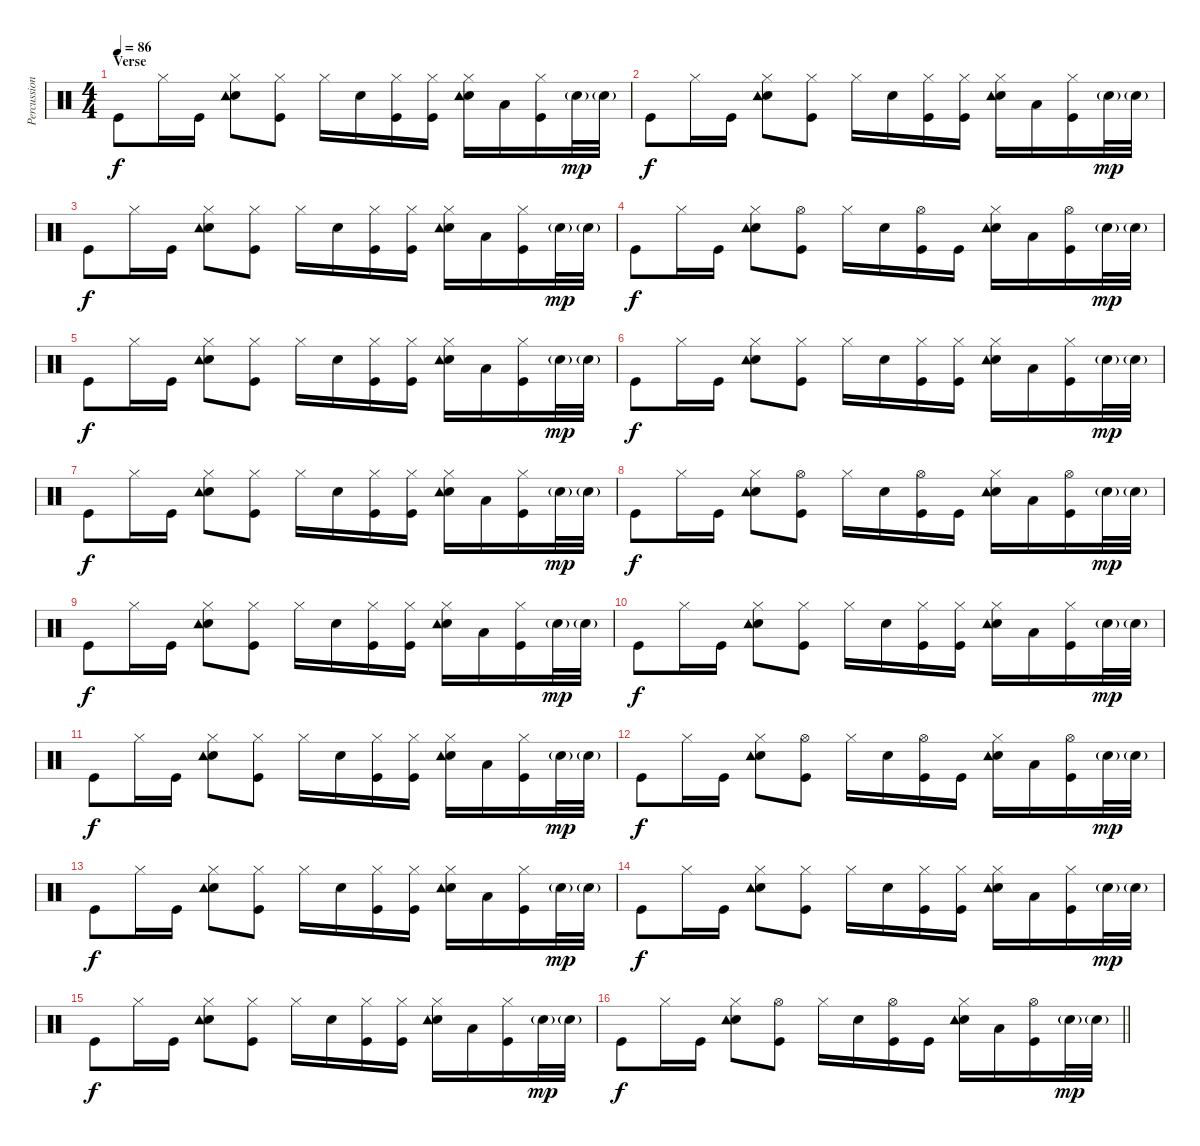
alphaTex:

\track ("Percussion" "Percussion") {instrument percussion}
\staff {score}
\articulation defaults
\ts (4 4)
\section ("" "Verse")
\tempo 86
\clef neutral
\ks c "Kick (hit)".8{dy f} "Hi-Hat (closed)".16 "Kick (hit)".16
("Snare (hit) 2" "Hi-Hat (closed)" "Tambourine (hit)").8 ("Hi-Hat (closed)" "Kick (hit)").8 "Hi-Hat (closed)".16 "Snare (hit) 2".16 ("Kick (hit)" "Hi-Hat (closed)").16 ("Kick (hit)" "Hi-Hat (closed)").16 ("Snare (hit) 2" "Hi-Hat (closed)" "Tambourine (hit)").16 "Low Tom (hit)".16 ("Hi-Hat (closed)" "Kick (hit)").16 "Snare (hit) 2"{g}.32{dy mp} "Snare (hit) 2"{g}.32 |
"Kick (hit)".8{dy f} "Hi-Hat (closed)".16 "Kick (hit)".16 ("Snare (hit) 2" "Hi-Hat (closed)" "Tambourine (hit)").8 ("Hi-Hat (closed)" "Kick (hit)").8 "Hi-Hat (closed)".16 "Snare (hit) 2".16 ("Kick (hit)" "Hi-Hat (closed)").16 ("Kick (hit)" "Hi-Hat (closed)").16 ("Snare (hit) 2" "Hi-Hat (closed)" "Tambourine (hit)").16 "Low Tom (hit)".16 ("Hi-Hat (closed)" "Kick (hit)").16 "Snare (hit) 2"{g}.32{dy mp} "Snare (hit) 2"{g}.32 |
"Kick (hit)".8{dy f} "Hi-Hat (closed)".16 "Kick (hit)".16 ("Snare (hit) 2" "Hi-Hat (closed)" "Tambourine (hit)").8 ("Hi-Hat (closed)" "Kick (hit)").8 "Hi-Hat (closed)".16 "Snare (hit) 2".16 ("Kick (hit)" "Hi-Hat (closed)").16 ("Kick (hit)" "Hi-Hat (closed)").16 ("Snare (hit) 2" "Hi-Hat (closed)" "Tambourine (hit)").16 "Low Tom (hit)".16 ("Hi-Hat (closed)" "Kick (hit)").16 "Snare (hit) 2"{g}.32{dy mp} "Snare (hit) 2"{g}.32 |
"Kick (hit)".8{dy f} "Hi-Hat (closed)".16 "Kick (hit)".16 ("Snare (hit) 2" "Hi-Hat (closed)" "Tambourine (hit)").8 ("Hi-Hat (open)" "Kick (hit)").8 "Hi-Hat (closed)".16 "Snare (hit) 2".16 ("Kick (hit)" "Hi-Hat (open)").16 "Kick (hit)".16 ("Snare (hit) 2" "Tambourine (hit)" "Hi-Hat (closed)").16 "Low Tom (hit)".16 ("Hi-Hat (open)" "Kick (hit)").16 "Snare (hit) 2"{g}.32{dy mp} "Snare (hit) 2"{g}.32 |
"Kick (hit)".8{dy f} "Hi-Hat (closed)".16 "Kick (hit)".16 ("Snare (hit) 2" "Hi-Hat (closed)" "Tambourine (hit)").8 ("Hi-Hat (closed)" "Kick (hit)").8 "Hi-Hat (closed)".16 "Snare (hit) 2".16 ("Kick (hit)" "Hi-Hat (closed)").16 ("Kick (hit)" "Hi-Hat (closed)").16 ("Snare (hit) 2" "Hi-Hat (closed)" "Tambourine (hit)").16 "Low Tom (hit)".16 ("Hi-Hat (closed)" "Kick (hit)").16 "Snare (hit) 2"{g}.32{dy mp} "Snare (hit) 2"{g}.32 |
"Kick (hit)".8{dy f} "Hi-Hat (closed)".16 "Kick (hit)".16 ("Snare (hit) 2" "Hi-Hat (closed)" "Tambourine (hit)").8 ("Hi-Hat (closed)" "Kick (hit)").8 "Hi-Hat (closed)".16 "Snare (hit) 2".16 ("Kick (hit)" "Hi-Hat (closed)").16 ("Kick (hit)" "Hi-Hat (closed)").16 ("Snare (hit) 2" "Hi-Hat (closed)" "Tambourine (hit)").16 "Low Tom (hit)".16 ("Hi-Hat (closed)" "Kick (hit)").16 "Snare (hit) 2"{g}.32{dy mp} "Snare (hit) 2"{g}.32 |
"Kick (hit)".8{dy f} "Hi-Hat (closed)".16 "Kick (hit)".16 ("Snare (hit) 2" "Hi-Hat (closed)" "Tambourine (hit)").8 ("Hi-Hat (closed)" "Kick (hit)").8 "Hi-Hat (closed)".16 "Snare (hit) 2".16 ("Kick (hit)" "Hi-Hat (closed)").16 ("Kick (hit)" "Hi-Hat (closed)").16 ("Snare (hit) 2" "Hi-Hat (closed)" "Tambourine (hit)").16 "Low Tom (hit)".16 ("Hi-Hat (closed)" "Kick (hit)").16 "Snare (hit) 2"{g}.32{dy mp} "Snare (hit) 2"{g}.32 |
"Kick (hit)".8{dy f} "Hi-Hat (closed)".16 "Kick (hit)".16 ("Snare (hit) 2" "Hi-Hat (closed)" "Tambourine (hit)").8 ("Hi-Hat (open)" "Kick (hit)").8 "Hi-Hat (closed)".16 "Snare (hit) 2".16 ("Kick (hit)" "Hi-Hat (open)").16 "Kick (hit)".16 ("Snare (hit) 2" "Tambourine (hit)" "Hi-Hat (closed)").16 "Low Tom (hit)".16 ("Hi-Hat (open)" "Kick (hit)").16 "Snare (hit) 2"{g}.32{dy mp} "Snare (hit) 2"{g}.32 |
"Kick (hit)".8{dy f} "Hi-Hat (closed)".16 "Kick (hit)".16 ("Snare (hit) 2" "Hi-Hat (closed)" "Tambourine (hit)").8 ("Hi-Hat (closed)" "Kick (hit)").8 "Hi-Hat (closed)".16 "Snare (hit) 2".16 ("Kick (hit)" "Hi-Hat (closed)").16 ("Kick (hit)" "Hi-Hat (closed)").16 ("Snare (hit) 2" "Hi-Hat (closed)" "Tambourine (hit)").16 "Low Tom (hit)".16 ("Hi-Hat (closed)" "Kick (hit)").16 "Snare (hit) 2"{g}.32{dy mp} "Snare (hit) 2"{g}.32 |
"Kick (hit)".8{dy f} "Hi-Hat (closed)".16 "Kick (hit)".16 ("Snare (hit) 2" "Hi-Hat (closed)" "Tambourine (hit)").8 ("Hi-Hat (closed)" "Kick (hit)").8 "Hi-Hat (closed)".16 "Snare (hit) 2".16 ("Kick (hit)" "Hi-Hat (closed)").16 ("Kick (hit)" "Hi-Hat (closed)").16 ("Snare (hit) 2" "Hi-Hat (closed)" "Tambourine (hit)").16 "Low Tom (hit)".16 ("Hi-Hat (closed)" "Kick (hit)").16 "Snare (hit) 2"{g}.32{dy mp} "Snare (hit) 2"{g}.32 |
"Kick (hit)".8{dy f} "Hi-Hat (closed)".16 "Kick (hit)".16 ("Snare (hit) 2" "Hi-Hat (closed)" "Tambourine (hit)").8 ("Hi-Hat (closed)" "Kick (hit)").8 "Hi-Hat (closed)".16 "Snare (hit) 2".16 ("Kick (hit)" "Hi-Hat (closed)").16 ("Kick (hit)" "Hi-Hat (closed)").16 ("Snare (hit) 2" "Hi-Hat (closed)" "Tambourine (hit)").16 "Low Tom (hit)".16 ("Hi-Hat (closed)" "Kick (hit)").16 "Snare (hit) 2"{g}.32{dy mp} "Snare (hit) 2"{g}.32 |
"Kick (hit)".8{dy f} "Hi-Hat (closed)".16 "Kick (hit)".16 ("Snare (hit) 2" "Hi-Hat (closed)" "Tambourine (hit)").8 ("Hi-Hat (open)" "Kick (hit)").8 "Hi-Hat (closed)".16 "Snare (hit) 2".16 ("Kick (hit)" "Hi-Hat (open)").16 "Kick (hit)".16 ("Snare (hit) 2" "Tambourine (hit)" "Hi-Hat (closed)").16 "Low Tom (hit)".16 ("Hi-Hat (open)" "Kick (hit)").16 "Snare (hit) 2"{g}.32{dy mp} "Snare (hit) 2"{g}.32 |
"Kick (hit)".8{dy f} "Hi-Hat (closed)".16 "Kick (hit)".16 ("Snare (hit) 2" "Hi-Hat (closed)" "Tambourine (hit)").8 ("Hi-Hat (closed)" "Kick (hit)").8 "Hi-Hat (closed)".16 "Snare (hit) 2".16 ("Kick (hit)" "Hi-Hat (closed)").16 ("Kick (hit)" "Hi-Hat (closed)").16 ("Snare (hit) 2" "Hi-Hat (closed)" "Tambourine (hit)").16 "Low Tom (hit)".16 ("Hi-Hat (closed)" "Kick (hit)").16 "Snare (hit) 2"{g}.32{dy mp} "Snare (hit) 2"{g}.32 |
"Kick (hit)".8{dy f} "Hi-Hat (closed)".16 "Kick (hit)".16 ("Snare (hit) 2" "Hi-Hat (closed)" "Tambourine (hit)").8 ("Hi-Hat (closed)" "Kick (hit)").8 "Hi-Hat (closed)".16 "Snare (hit) 2".16 ("Kick (hit)" "Hi-Hat (closed)").16 ("Kick (hit)" "Hi-Hat (closed)").16 ("Snare (hit) 2" "Hi-Hat (closed)" "Tambourine (hit)").16 "Low Tom (hit)".16 ("Hi-Hat (closed)" "Kick (hit)").16 "Snare (hit) 2"{g}.32{dy mp} "Snare (hit) 2"{g}.32 |
"Kick (hit)".8{dy f} "Hi-Hat (closed)".16 "Kick (hit)".16 ("Snare (hit) 2" "Hi-Hat (closed)" "Tambourine (hit)").8 ("Hi-Hat (closed)" "Kick (hit)").8 "Hi-Hat (closed)".16 "Snare (hit) 2".16 ("Kick (hit)" "Hi-Hat (closed)").16 ("Kick (hit)" "Hi-Hat (closed)").16 ("Snare (hit) 2" "Hi-Hat (closed)" "Tambourine (hit)").16 "Low Tom (hit)".16 ("Hi-Hat (closed)" "Kick (hit)").16 "Snare (hit) 2"{g}.32{dy mp} "Snare (hit) 2"{g}.32 |
\barLineRight lightlight "Kick (hit)".8{dy f} "Hi-Hat (closed)".16 "Kick (hit)".16
("Snare (hit) 2" "Hi-Hat (closed)" "Tambourine (hit)").8 ("Hi-Hat (open)" "Kick (hit)").8 "Hi-Hat (closed)".16 "Snare (hit) 2".16 ("Kick (hit)" "Hi-Hat (open)").16 "Kick (hit)".16 ("Snare (hit) 2" "Tambourine (hit)" "Hi-Hat (closed)").16 "Low Tom (hit)".16 ("Hi-Hat (open)" "Kick (hit)").16 "Snare (hit) 2"{g}.32{dy mp} "Snare (hit) 2"{g}.32
